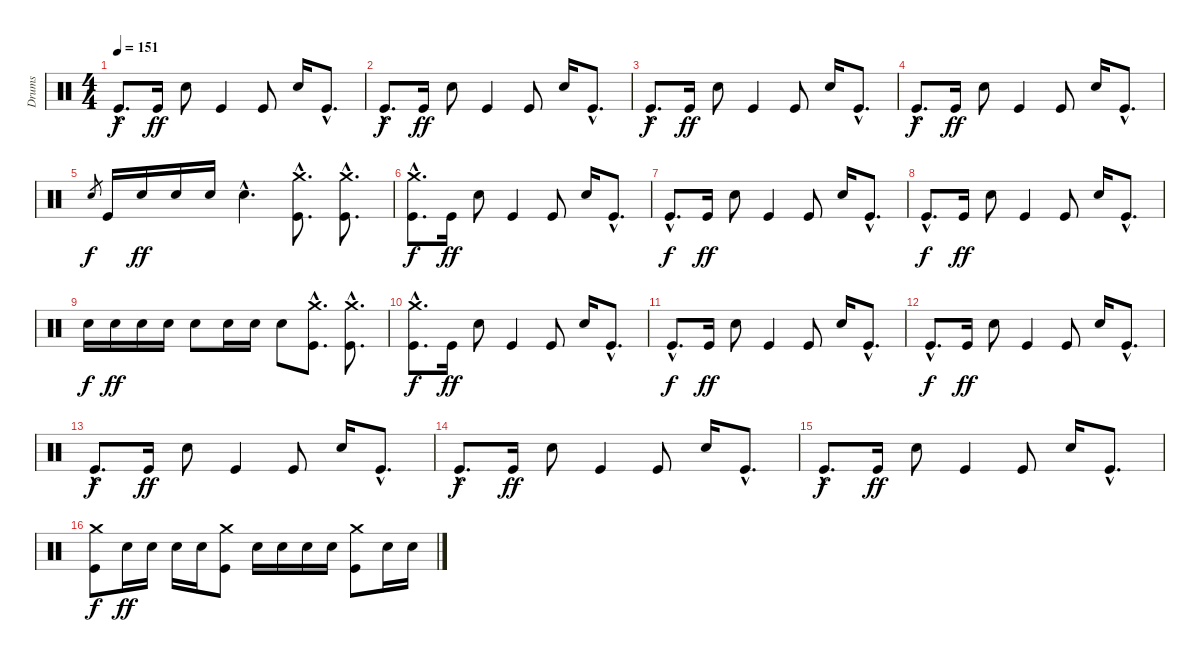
\track ("Drums" "Drums") {instrument percussion}
\staff {score}
\articulation defaults
\ts (4 4)
\tempo 151
\clef neutral
\ks c "Kick (hit)"{hac}.8{d dy f} "Kick (hit)".16{dy ff} "Snare (hit) 2".8 "Kick (hit)".4 "Kick (hit)".8 "Snare (hit) 2".16 "Kick (hit)"{hac}.8{d}
|
"Kick (hit)"{hac}.8{d dy f} "Kick (hit)".16{dy ff} "Snare (hit) 2".8 "Kick (hit)".4 "Kick (hit)".8 "Snare (hit) 2".16 "Kick (hit)"{hac}.8{d} |
"Kick (hit)"{hac}.8{d dy f} "Kick (hit)".16{dy ff} "Snare (hit) 2".8 "Kick (hit)".4 "Kick (hit)".8 "Snare (hit) 2".16 "Kick (hit)"{hac}.8{d} |
"Kick (hit)"{hac}.8{d dy f} "Kick (hit)".16{dy ff} "Snare (hit) 2".8 "Kick (hit)".4 "Kick (hit)".8 "Snare (hit) 2".16 "Kick (hit)"{hac}.8{d} |
"Snare (hit) 2".8{gr dy f} "Kick (hit)".16 "Snare (hit) 2".16{dy ff} "Snare (hit) 2".16 "Snare (hit) 2".16 "Snare (hit) 2"{hac}.4{d} ("Crash medium (hit)"{hac} "Kick (hit)"{hac}).8{d} ("Crash medium (hit)"{hac} "Kick (hit)"{hac}).8{d} |
("Crash medium (hit)"{hac} "Kick (hit)"{hac}).8{d dy f} "Kick (hit)".16{dy ff} "Snare (hit) 2".8 "Kick (hit)".4 "Kick (hit)".8 "Snare (hit) 2".16 "Kick (hit)"{hac}.8{d} |
"Kick (hit)"{hac}.8{d dy f} "Kick (hit)".16{dy ff} "Snare (hit) 2".8 "Kick (hit)".4 "Kick (hit)".8 "Snare (hit) 2".16 "Kick (hit)"{hac}.8{d} |
"Kick (hit)"{hac}.8{d dy f} "Kick (hit)".16{dy ff} "Snare (hit) 2".8 "Kick (hit)".4 "Kick (hit)".8 "Snare (hit) 2".16 "Kick (hit)"{hac}.8{d} |
"Snare (hit) 2".16{dy f} "Snare (hit) 2".16{dy ff} "Snare (hit) 2".16 "Snare (hit) 2".16 "Snare (hit) 2".8 "Snare (hit) 2".16 "Snare (hit) 2".16 "Snare (hit) 2".8 ("Crash medium (hit)"{hac} "Kick (hit)"{hac}).8{d} ("Crash medium (hit)"{hac} "Kick (hit)"{hac}).8{d} |
("Crash medium (hit)"{hac} "Kick (hit)"{hac}).8{d dy f} "Kick (hit)".16{dy ff} "Snare (hit) 2".8 "Kick (hit)".4 "Kick (hit)".8 "Snare (hit) 2".16 "Kick (hit)"{hac}.8{d} |
"Kick (hit)"{hac}.8{d dy f} "Kick (hit)".16{dy ff} "Snare (hit) 2".8 "Kick (hit)".4 "Kick (hit)".8 "Snare (hit) 2".16 "Kick (hit)"{hac}.8{d} |
"Kick (hit)"{hac}.8{d dy f} "Kick (hit)".16{dy ff} "Snare (hit) 2".8 "Kick (hit)".4 "Kick (hit)".8 "Snare (hit) 2".16 "Kick (hit)"{hac}.8{d} |
"Kick (hit)"{hac}.8{d dy f} "Kick (hit)".16{dy ff} "Snare (hit) 2".8 "Kick (hit)".4 "Kick (hit)".8 "Snare (hit) 2".16 "Kick (hit)"{hac}.8{d} |
"Kick (hit)"{hac}.8{d dy f} "Kick (hit)".16{dy ff} "Snare (hit) 2".8 "Kick (hit)".4 "Kick (hit)".8 "Snare (hit) 2".16 "Kick (hit)"{hac}.8{d} |
"Kick (hit)"{hac}.8{d dy f} "Kick (hit)".16{dy ff} "Snare (hit) 2".8 "Kick (hit)".4 "Kick (hit)".8 "Snare (hit) 2".16 "Kick (hit)"{hac}.8{d} |
("Crash medium (hit)" "Kick (hit)").8{dy f volume 4} "Snare (hit) 2".16{dy ff} "Snare (hit) 2".16 "Snare (hit) 2".16 "Snare (hit) 2".16 ("Crash medium (hit)" "Kick (hit)").8 "Snare (hit) 2".16 "Snare (hit) 2".16 "Snare (hit) 2".16 "Snare (hit) 2".16 ("Crash medium (hit)" "Kick (hit)").8 "Snare (hit) 2".16 "Snare (hit) 2".16
